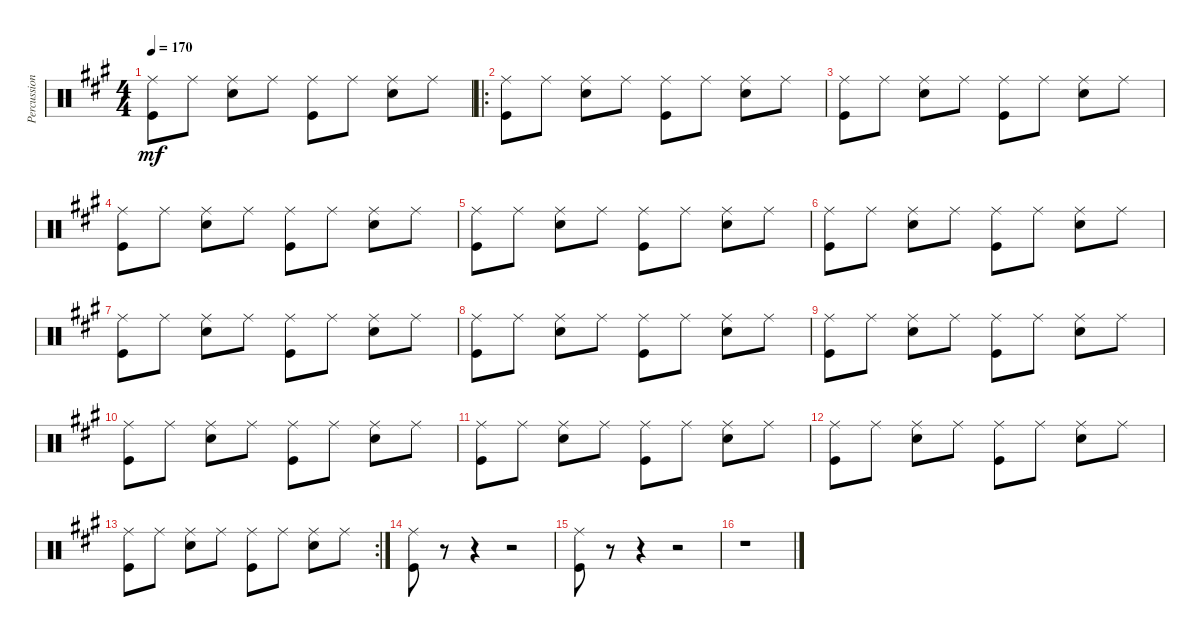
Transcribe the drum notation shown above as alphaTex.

\track ("Percussion" "Percussion") {instrument percussion}
\staff {score}
\articulation defaults
\ts (4 4)
\tempo 170
\clef neutral
\ks a
("Ride (middle)" "Kick (hit)").8{dy mf} "Ride (middle)".8 ("Ride (middle)" "Snare (hit) 2").8 "Ride (middle)".8 ("Ride (middle)" "Kick (hit)").8 "Ride (middle)".8 ("Ride (middle)" "Snare (hit) 2").8 "Ride (middle)".8 |
\ro
("Ride (middle)" "Kick (hit)").8 "Ride (middle)".8 ("Ride (middle)" "Snare (hit) 2").8 "Ride (middle)".8 ("Ride (middle)" "Kick (hit)").8 "Ride (middle)".8 ("Ride (middle)" "Snare (hit) 2").8 "Ride (middle)".8 |
("Ride (middle)" "Kick (hit)").8 "Ride (middle)".8 ("Ride (middle)" "Snare (hit) 2").8 "Ride (middle)".8 ("Ride (middle)" "Kick (hit)").8 "Ride (middle)".8 ("Ride (middle)" "Snare (hit) 2").8 "Ride (middle)".8 |
("Ride (middle)" "Kick (hit)").8 "Ride (middle)".8 ("Ride (middle)" "Snare (hit) 2").8 "Ride (middle)".8 ("Ride (middle)" "Kick (hit)").8 "Ride (middle)".8 ("Ride (middle)" "Snare (hit) 2").8 "Ride (middle)".8 |
("Ride (middle)" "Kick (hit)").8 "Ride (middle)".8 ("Ride (middle)" "Snare (hit) 2").8 "Ride (middle)".8 ("Ride (middle)" "Kick (hit)").8 "Ride (middle)".8 ("Ride (middle)" "Snare (hit) 2").8 "Ride (middle)".8 |
("Ride (middle)" "Kick (hit)").8 "Ride (middle)".8 ("Ride (middle)" "Snare (hit) 2").8 "Ride (middle)".8 ("Ride (middle)" "Kick (hit)").8 "Ride (middle)".8 ("Ride (middle)" "Snare (hit) 2").8 "Ride (middle)".8 |
("Ride (middle)" "Kick (hit)").8 "Ride (middle)".8 ("Ride (middle)" "Snare (hit) 2").8 "Ride (middle)".8 ("Ride (middle)" "Kick (hit)").8 "Ride (middle)".8 ("Ride (middle)" "Snare (hit) 2").8 "Ride (middle)".8 |
("Ride (middle)" "Kick (hit)").8 "Ride (middle)".8 ("Ride (middle)" "Snare (hit) 2").8 "Ride (middle)".8 ("Ride (middle)" "Kick (hit)").8 "Ride (middle)".8 ("Ride (middle)" "Snare (hit) 2").8 "Ride (middle)".8 |
("Ride (middle)" "Kick (hit)").8 "Ride (middle)".8 ("Ride (middle)" "Snare (hit) 2").8 "Ride (middle)".8 ("Ride (middle)" "Kick (hit)").8 "Ride (middle)".8 ("Ride (middle)" "Snare (hit) 2").8 "Ride (middle)".8 |
("Ride (middle)" "Kick (hit)").8 "Ride (middle)".8 ("Ride (middle)" "Snare (hit) 2").8 "Ride (middle)".8 ("Ride (middle)" "Kick (hit)").8 "Ride (middle)".8 ("Ride (middle)" "Snare (hit) 2").8 "Ride (middle)".8 |
("Ride (middle)" "Kick (hit)").8 "Ride (middle)".8 ("Ride (middle)" "Snare (hit) 2").8 "Ride (middle)".8 ("Ride (middle)" "Kick (hit)").8 "Ride (middle)".8 ("Ride (middle)" "Snare (hit) 2").8 "Ride (middle)".8 |
("Ride (middle)" "Kick (hit)").8 "Ride (middle)".8 ("Ride (middle)" "Snare (hit) 2").8 "Ride (middle)".8 ("Ride (middle)" "Kick (hit)").8 "Ride (middle)".8 ("Ride (middle)" "Snare (hit) 2").8 "Ride (middle)".8 |
\rc 2
("Ride (middle)" "Kick (hit)").8 "Ride (middle)".8 ("Ride (middle)" "Snare (hit) 2").8 "Ride (middle)".8 ("Ride (middle)" "Kick (hit)").8 "Ride (middle)".8 ("Ride (middle)" "Snare (hit) 2").8 "Ride (middle)".8 |
("Ride (middle)" "Kick (hit)").8 r.8 r.4 r.2 |
("Ride (middle)" "Kick (hit)").8 r.8 r.4 r.2 |
r.1
